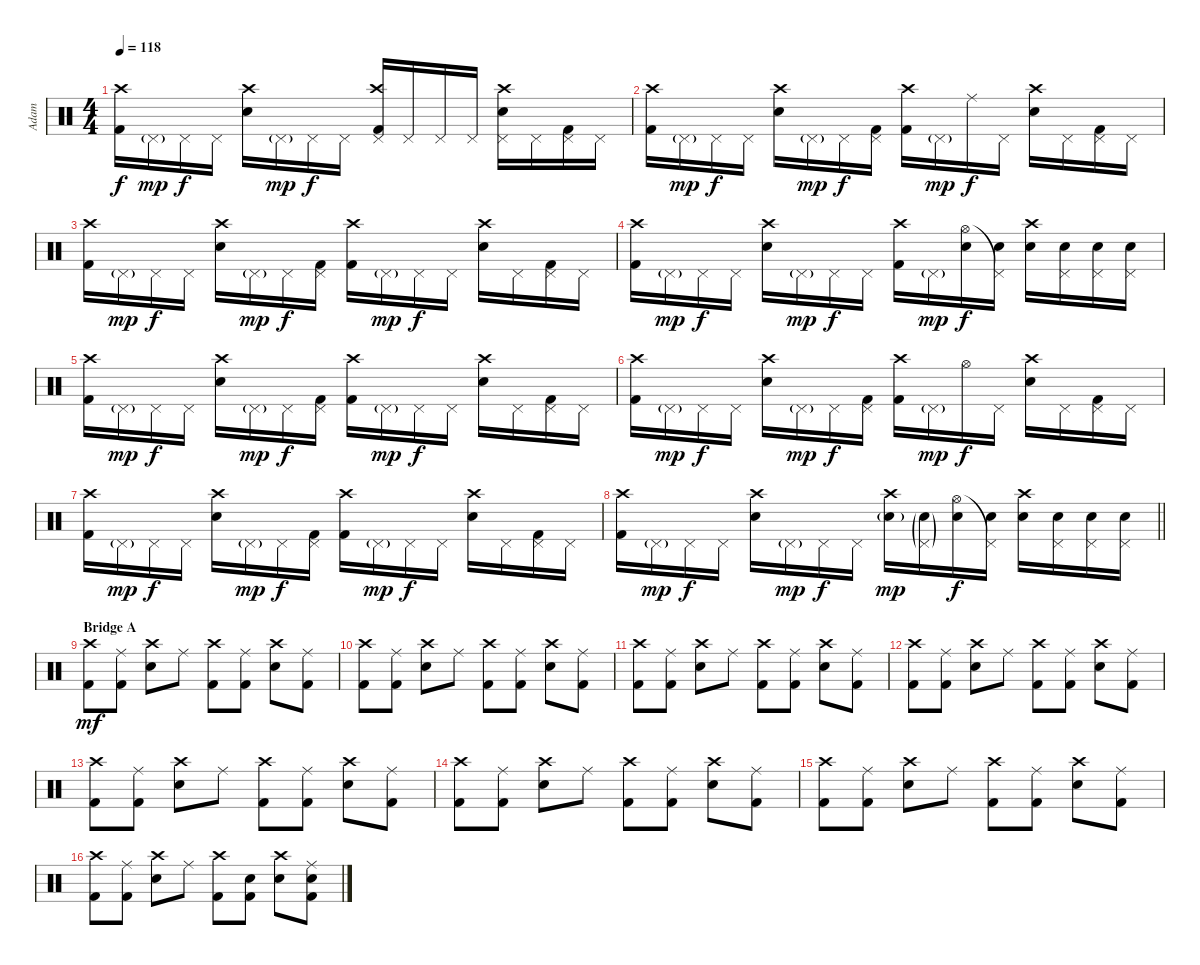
\track ("Adam" "Adam") {instrument percussion}
\staff {score}
\articulation defaults
\ts (4 4)
\tempo 118
\clef neutral
\ks c
("Kick (hit) 2" "Crash high (hit)").16{dy f} "Pedal Hi-Hat (hit)"{g}.16{dy mp} "Pedal Hi-Hat (hit)".16{dy f} "Pedal Hi-Hat (hit)".16 ("Snare (hit) 2" "Crash high (hit)").16 "Pedal Hi-Hat (hit)"{g}.16{dy mp} "Pedal Hi-Hat (hit)".16{dy f} "Pedal Hi-Hat (hit)".16 ("Kick (hit) 2" "Pedal Hi-Hat (hit)" "Crash high (hit)").16 "Pedal Hi-Hat (hit)".16 "Pedal Hi-Hat (hit)".16 "Pedal Hi-Hat (hit)".16 ("Snare (hit) 2" "Pedal Hi-Hat (hit)" "Crash high (hit)").16 "Pedal Hi-Hat (hit)".16 ("Pedal Hi-Hat (hit)" "Kick (hit) 2").16 "Pedal Hi-Hat (hit)".16 |
("Kick (hit) 2" "Crash high (hit)").16 "Pedal Hi-Hat (hit)"{g}.16{dy mp} "Pedal Hi-Hat (hit)".16{dy f} "Pedal Hi-Hat (hit)".16 ("Snare (hit) 2" "Crash high (hit)").16 "Pedal Hi-Hat (hit)"{g}.16{dy mp} "Pedal Hi-Hat (hit)".16{dy f} ("Pedal Hi-Hat (hit)" "Kick (hit) 2").16 ("Kick (hit) 2" "Crash high (hit)").16 "Pedal Hi-Hat (hit)"{g}.16{dy mp} "Ride (middle)".16{dy f} "Pedal Hi-Hat (hit)".16 ("Snare (hit) 2" "Crash high (hit)").16 "Pedal Hi-Hat (hit)".16 ("Pedal Hi-Hat (hit)" "Kick (hit) 2").16 "Pedal Hi-Hat (hit)".16 |
("Kick (hit) 2" "Crash high (hit)").16 "Pedal Hi-Hat (hit)"{g}.16{dy mp} "Pedal Hi-Hat (hit)".16{dy f} "Pedal Hi-Hat (hit)".16 ("Snare (hit) 2" "Crash high (hit)").16 "Pedal Hi-Hat (hit)"{g}.16{dy mp} "Pedal Hi-Hat (hit)".16{dy f} ("Pedal Hi-Hat (hit)" "Kick (hit) 2").16 ("Kick (hit) 2" "Crash high (hit)").16 "Pedal Hi-Hat (hit)"{g}.16{dy mp} "Pedal Hi-Hat (hit)".16{dy f} "Pedal Hi-Hat (hit)".16 ("Snare (hit) 2" "Crash high (hit)").16 "Pedal Hi-Hat (hit)".16 ("Pedal Hi-Hat (hit)" "Kick (hit) 2").16 "Pedal Hi-Hat (hit)".16 |
("Kick (hit) 2" "Crash high (hit)").16 "Pedal Hi-Hat (hit)"{g}.16{dy mp} "Pedal Hi-Hat (hit)".16{dy f} "Pedal Hi-Hat (hit)".16 ("Snare (hit) 2" "Crash high (hit)").16 "Pedal Hi-Hat (hit)"{g}.16{dy mp} "Pedal Hi-Hat (hit)".16{dy f} "Pedal Hi-Hat (hit)".16 ("Kick (hit) 2" "Crash high (hit)").16 "Pedal Hi-Hat (hit)"{g}.16{dy mp} ("Snare (hit) 2" "Hi-Hat (open)").16{dy f} ("Snare (hit) 2" "Pedal Hi-Hat (hit)"{t}).16 ("Snare (hit) 2" "Crash high (hit)").16 ("Snare (hit) 2" "Pedal Hi-Hat (hit)").16 ("Snare (hit) 2" "Pedal Hi-Hat (hit)").16 ("Snare (hit) 2" "Pedal Hi-Hat (hit)").16 |
("Kick (hit) 2" "Crash high (hit)").16 "Pedal Hi-Hat (hit)"{g}.16{dy mp} "Pedal Hi-Hat (hit)".16{dy f} "Pedal Hi-Hat (hit)".16 ("Snare (hit) 2" "Crash high (hit)").16 "Pedal Hi-Hat (hit)"{g}.16{dy mp} "Pedal Hi-Hat (hit)".16{dy f} ("Pedal Hi-Hat (hit)" "Kick (hit) 2").16 ("Kick (hit) 2" "Crash high (hit)").16 "Pedal Hi-Hat (hit)"{g}.16{dy mp} "Pedal Hi-Hat (hit)".16{dy f} "Pedal Hi-Hat (hit)".16 ("Snare (hit) 2" "Crash high (hit)").16 "Pedal Hi-Hat (hit)".16 ("Pedal Hi-Hat (hit)" "Kick (hit) 2").16 "Pedal Hi-Hat (hit)".16 |
("Kick (hit) 2" "Crash high (hit)").16 "Pedal Hi-Hat (hit)"{g}.16{dy mp} "Pedal Hi-Hat (hit)".16{dy f} "Pedal Hi-Hat (hit)".16 ("Snare (hit) 2" "Crash high (hit)").16 "Pedal Hi-Hat (hit)"{g}.16{dy mp} "Pedal Hi-Hat (hit)".16{dy f} ("Pedal Hi-Hat (hit)" "Kick (hit) 2").16 ("Kick (hit) 2" "Crash high (hit)").16 "Pedal Hi-Hat (hit)"{g}.16{dy mp} "Hi-Hat (open)".16{dy f} "Pedal Hi-Hat (hit)".16 ("Snare (hit) 2" "Crash high (hit)").16 "Pedal Hi-Hat (hit)".16 ("Pedal Hi-Hat (hit)" "Kick (hit) 2").16 "Pedal Hi-Hat (hit)".16 |
("Kick (hit) 2" "Crash high (hit)").16 "Pedal Hi-Hat (hit)"{g}.16{dy mp} "Pedal Hi-Hat (hit)".16{dy f} "Pedal Hi-Hat (hit)".16 ("Snare (hit) 2" "Crash high (hit)").16 "Pedal Hi-Hat (hit)"{g}.16{dy mp} "Pedal Hi-Hat (hit)".16{dy f} ("Pedal Hi-Hat (hit)" "Kick (hit) 2").16 ("Kick (hit) 2" "Crash high (hit)").16 "Pedal Hi-Hat (hit)"{g}.16{dy mp} "Pedal Hi-Hat (hit)".16{dy f} "Pedal Hi-Hat (hit)".16 ("Snare (hit) 2" "Crash high (hit)").16 "Pedal Hi-Hat (hit)".16 ("Pedal Hi-Hat (hit)" "Kick (hit) 2").16 "Pedal Hi-Hat (hit)".16 |
\barLineRight lightlight
("Kick (hit) 2" "Crash high (hit)").16 "Pedal Hi-Hat (hit)"{g}.16{dy mp} "Pedal Hi-Hat (hit)".16{dy f} "Pedal Hi-Hat (hit)".16 ("Snare (hit) 2" "Crash high (hit)").16 "Pedal Hi-Hat (hit)"{g}.16{dy mp} "Pedal Hi-Hat (hit)".16{dy f} "Pedal Hi-Hat (hit)".16 ("Snare (hit) 2"{g} "Crash high (hit)").16{dy mp} ("Snare (hit) 2"{g} "Pedal Hi-Hat (hit)"{g}).16 ("Snare (hit) 2" "Hi-Hat (open)").16{dy f} ("Snare (hit) 2" "Pedal Hi-Hat (hit)"{t}).16 ("Snare (hit) 2" "Crash high (hit)").16 ("Snare (hit) 2" "Pedal Hi-Hat (hit)").16 ("Snare (hit) 2" "Pedal Hi-Hat (hit)").16 ("Snare (hit) 2" "Pedal Hi-Hat (hit)").16 |
\section ("" "Bridge A")
("Crash high (hit)" "Kick (hit) 2").8{dy mf} ("Kick (hit) 2" "Ride (middle)").8 ("Snare (hit) 2" "Crash high (hit)").8 "Ride (middle)".8 ("Kick (hit) 2" "Crash high (hit)").8 ("Kick (hit) 2" "Ride (middle)").8 ("Snare (hit) 2" "Crash high (hit)").8 ("Kick (hit) 2" "Ride (middle)").8 |
("Crash high (hit)" "Kick (hit) 2").8 ("Kick (hit) 2" "Ride (middle)").8 ("Snare (hit) 2" "Crash high (hit)").8 "Ride (middle)".8 ("Kick (hit) 2" "Crash high (hit)").8 ("Kick (hit) 2" "Ride (middle)").8 ("Snare (hit) 2" "Crash high (hit)").8 ("Kick (hit) 2" "Ride (middle)").8 |
("Crash high (hit)" "Kick (hit) 2").8 ("Kick (hit) 2" "Ride (middle)").8 ("Snare (hit) 2" "Crash high (hit)").8 "Ride (middle)".8 ("Kick (hit) 2" "Crash high (hit)").8 ("Kick (hit) 2" "Ride (middle)").8 ("Snare (hit) 2" "Crash high (hit)").8 ("Kick (hit) 2" "Ride (middle)").8 |
("Crash high (hit)" "Kick (hit) 2").8 ("Kick (hit) 2" "Ride (middle)").8 ("Snare (hit) 2" "Crash high (hit)").8 "Ride (middle)".8 ("Kick (hit) 2" "Crash high (hit)").8 ("Kick (hit) 2" "Ride (middle)").8 ("Snare (hit) 2" "Crash high (hit)").8 ("Kick (hit) 2" "Ride (middle)").8 |
("Crash high (hit)" "Kick (hit) 2").8 ("Kick (hit) 2" "Ride (middle)").8 ("Snare (hit) 2" "Crash high (hit)").8 "Ride (middle)".8 ("Kick (hit) 2" "Crash high (hit)").8 ("Kick (hit) 2" "Ride (middle)").8 ("Snare (hit) 2" "Crash high (hit)").8 ("Kick (hit) 2" "Ride (middle)").8 |
("Crash high (hit)" "Kick (hit) 2").8 ("Kick (hit) 2" "Ride (middle)").8 ("Snare (hit) 2" "Crash high (hit)").8 "Ride (middle)".8 ("Kick (hit) 2" "Crash high (hit)").8 ("Kick (hit) 2" "Ride (middle)").8 ("Snare (hit) 2" "Crash high (hit)").8 ("Kick (hit) 2" "Ride (middle)").8 |
("Crash high (hit)" "Kick (hit) 2").8 ("Kick (hit) 2" "Ride (middle)").8 ("Snare (hit) 2" "Crash high (hit)").8 "Ride (middle)".8 ("Kick (hit) 2" "Crash high (hit)").8 ("Kick (hit) 2" "Ride (middle)").8 ("Snare (hit) 2" "Crash high (hit)").8 ("Kick (hit) 2" "Ride (middle)").8 |
("Crash high (hit)" "Kick (hit) 2").8 ("Kick (hit) 2" "Ride (middle)").8 ("Snare (hit) 2" "Crash high (hit)").8 "Ride (middle)".8 ("Kick (hit) 2" "Crash high (hit)").8 ("Kick (hit) 2" "Snare (hit) 2").8 ("Snare (hit) 2" "Crash high (hit)").8 ("Kick (hit) 2" "Snare (hit) 2" "Ride (middle)").8
